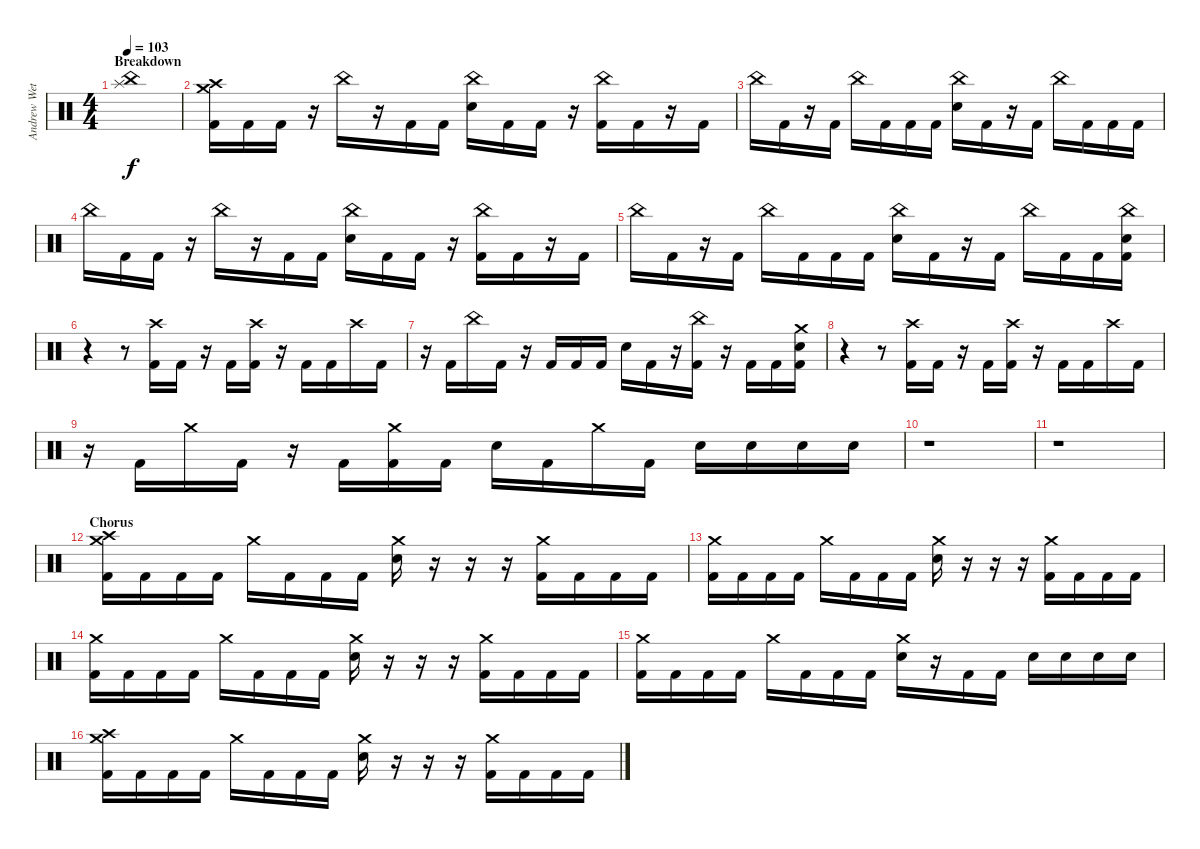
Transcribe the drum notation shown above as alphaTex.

\track ("Andrew Wetzel - Drums" "Andrew Wet") {instrument percussion}
\staff {score}
\articulation defaults
\ts (4 4)
\section ("" "Breakdown")
\tempo 103
\clef neutral
\ks c
("China (hit)" "Splash (hit)").1{dy f} |
("Crash high (hit)" "Crash medium (hit)" "Kick (hit) 2").16 "Kick (hit) 2".16 "Kick (hit) 2".16 r.16 "China (hit)".16 r.16 "Kick (hit) 2".16 "Kick (hit) 2".16 ("China (hit)" "Electric Snare (hit)").16 "Kick (hit) 2".16 "Kick (hit) 2".16 r.16 ("China (hit)" "Kick (hit) 2").16 "Kick (hit) 2".16 r.16 "Kick (hit) 2".16 |
"China (hit)".16 "Kick (hit) 2".16 r.16 "Kick (hit) 2".16 "China (hit)".16 "Kick (hit) 2".16 "Kick (hit) 2".16 "Kick (hit) 2".16 ("China (hit)" "Electric Snare (hit)").16 "Kick (hit) 2".16 r.16 "Kick (hit) 2".16 "China (hit)".16 "Kick (hit) 2".16 "Kick (hit) 2".16 "Kick (hit) 2".16 |
"China (hit)".16 "Kick (hit) 2".16 "Kick (hit) 2".16 r.16 "China (hit)".16 r.16 "Kick (hit) 2".16 "Kick (hit) 2".16 ("China (hit)" "Electric Snare (hit)").16 "Kick (hit) 2".16 "Kick (hit) 2".16 r.16 ("China (hit)" "Kick (hit) 2").16 "Kick (hit) 2".16 r.16 "Kick (hit) 2".16 |
"China (hit)".16 "Kick (hit) 2".16 r.16 "Kick (hit) 2".16 "China (hit)".16 "Kick (hit) 2".16 "Kick (hit) 2".16 "Kick (hit) 2".16 ("China (hit)" "Electric Snare (hit)").16 "Kick (hit) 2".16 r.16 "Kick (hit) 2".16 "China (hit)".16 "Kick (hit) 2".16 "Kick (hit) 2".16 ("China (hit)" "Electric Snare (hit)" "Kick (hit) 2").16 |
r.4 r.8 ("Crash high (hit)" "Kick (hit) 2").16 "Kick (hit) 2".16 r.16 "Kick (hit) 2".16 ("Crash high (hit)" "Kick (hit) 2").16 r.16 "Kick (hit) 2".16 "Kick (hit) 2".16 "Crash high (hit)".16 "Kick (hit) 2".16 |
r.16 "Kick (hit) 2".16 "China (hit)".16 "Kick (hit) 2".16 r.16 "Kick (hit) 2".16 "Kick (hit) 2".16 "Kick (hit) 2".16 "Electric Snare (hit)".16 "Kick (hit) 2".16 r.16 ("China (hit)" "Kick (hit) 2").16 r.16 "Kick (hit) 2".16 "Kick (hit) 2".16 ("Crash medium (hit)" "Electric Snare (hit)" "Kick (hit) 2").16 |
r.4 r.8 ("Crash high (hit)" "Kick (hit) 2").16 "Kick (hit) 2".16 r.16 "Kick (hit) 2".16 ("Crash high (hit)" "Kick (hit) 2").16 r.16 "Kick (hit) 2".16 "Kick (hit) 2".16 "Crash high (hit)".16 "Kick (hit) 2".16 |
r.16 "Kick (hit) 2".16 "Crash medium (hit)".16 "Kick (hit) 2".16 r.16 "Kick (hit) 2".16 ("Crash medium (hit)" "Kick (hit) 2").16 "Kick (hit) 2".16 "Electric Snare (hit)".16 "Kick (hit) 2".16 "Crash medium (hit)".16 "Kick (hit) 2".16 "Electric Snare (hit)".16 "Electric Snare (hit)".16 "Electric Snare (hit)".16 "Electric Snare (hit)".16 |
r.1 |
r.1 |
\section ("" "Chorus")
("Crash high (hit)" "Crash medium (hit)" "Kick (hit) 2").16 "Kick (hit) 2".16 "Kick (hit) 2".16 "Kick (hit) 2".16 "Crash medium (hit)".16 "Kick (hit) 2".16 "Kick (hit) 2".16 "Kick (hit) 2".16 ("Crash medium (hit)" "Electric Snare (hit)").16 r.16 r.16 r.16 ("Crash medium (hit)" "Kick (hit) 2").16 "Kick (hit) 2".16 "Kick (hit) 2".16 "Kick (hit) 2".16 |
("Crash medium (hit)" "Kick (hit) 2").16 "Kick (hit) 2".16 "Kick (hit) 2".16 "Kick (hit) 2".16 "Crash medium (hit)".16 "Kick (hit) 2".16 "Kick (hit) 2".16 "Kick (hit) 2".16 ("Crash medium (hit)" "Electric Snare (hit)").16 r.16 r.16 r.16 ("Crash medium (hit)" "Kick (hit) 2").16 "Kick (hit) 2".16 "Kick (hit) 2".16 "Kick (hit) 2".16 |
("Crash medium (hit)" "Kick (hit) 2").16 "Kick (hit) 2".16 "Kick (hit) 2".16 "Kick (hit) 2".16 "Crash medium (hit)".16 "Kick (hit) 2".16 "Kick (hit) 2".16 "Kick (hit) 2".16 ("Crash medium (hit)" "Electric Snare (hit)").16 r.16 r.16 r.16 ("Crash medium (hit)" "Kick (hit) 2").16 "Kick (hit) 2".16 "Kick (hit) 2".16 "Kick (hit) 2".16 |
("Crash medium (hit)" "Kick (hit) 2").16 "Kick (hit) 2".16 "Kick (hit) 2".16 "Kick (hit) 2".16 "Crash medium (hit)".16 "Kick (hit) 2".16 "Kick (hit) 2".16 "Kick (hit) 2".16 ("Crash medium (hit)" "Electric Snare (hit)").16 r.16 "Kick (hit) 2".16 "Kick (hit) 2".16 "Electric Snare (hit)".16 "Electric Snare (hit)".16 "Electric Snare (hit)".16 "Electric Snare (hit)".16 |
("Crash high (hit)" "Crash medium (hit)" "Kick (hit) 2").16 "Kick (hit) 2".16 "Kick (hit) 2".16 "Kick (hit) 2".16 "Crash medium (hit)".16 "Kick (hit) 2".16 "Kick (hit) 2".16 "Kick (hit) 2".16 ("Crash medium (hit)" "Electric Snare (hit)").16 r.16 r.16 r.16 ("Crash medium (hit)" "Kick (hit) 2").16 "Kick (hit) 2".16 "Kick (hit) 2".16 "Kick (hit) 2".16
